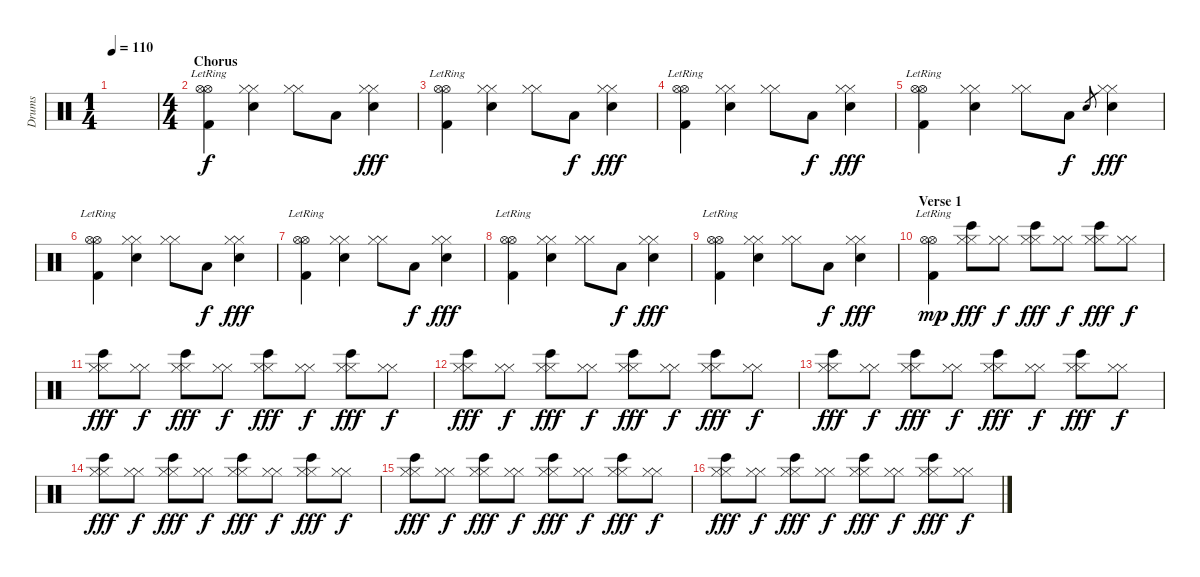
\track ("Drums" "Drums") {instrument percussion}
\staff {score}
\articulation defaults
\ts (1 4)
\tempo 110
\clef neutral
\ks c
|
\ts (4 4)
\section ("" "Chorus")
("Hi-Hat (open)"{lr} "Hi-Hat (open)"{lr} "Kick (hit) 2").4 ("Hi-Hat (closed)" "Hi-Hat (closed)" "Electric Snare (hit)").4 ("Hi-Hat (closed)" "Hi-Hat (closed)").8 "Low Tom (hit)".8{dy f} ("Hi-Hat (closed)" "Hi-Hat (closed)" "Electric Snare (hit)").4{dy fff} |
("Hi-Hat (open)"{lr} "Hi-Hat (open)"{lr} "Kick (hit) 2").4 ("Hi-Hat (closed)" "Hi-Hat (closed)" "Electric Snare (hit)").4 ("Hi-Hat (closed)" "Hi-Hat (closed)").8 "Low Tom (hit)".8{dy f} ("Hi-Hat (closed)" "Hi-Hat (closed)" "Electric Snare (hit)").4{dy fff} |
("Hi-Hat (open)"{lr} "Hi-Hat (open)"{lr} "Kick (hit) 2").4 ("Hi-Hat (closed)" "Hi-Hat (closed)" "Electric Snare (hit)").4 ("Hi-Hat (closed)" "Hi-Hat (closed)").8 "Low Tom (hit)".8{dy f} ("Hi-Hat (closed)" "Hi-Hat (closed)" "Electric Snare (hit)").4{dy fff} |
("Hi-Hat (open)"{lr} "Hi-Hat (open)"{lr} "Kick (hit) 2").4 ("Hi-Hat (closed)" "Hi-Hat (closed)" "Electric Snare (hit)").4 ("Hi-Hat (closed)" "Hi-Hat (closed)").8 "Low Tom (hit)".8{dy f} "Electric Snare (hit)".8{gr} ("Hi-Hat (closed)" "Hi-Hat (closed)" "Electric Snare (hit)").4{dy fff} |
("Hi-Hat (open)"{lr} "Hi-Hat (open)"{lr} "Kick (hit) 2").4 ("Hi-Hat (closed)" "Hi-Hat (closed)" "Electric Snare (hit)").4 ("Hi-Hat (closed)" "Hi-Hat (closed)").8 "Low Tom (hit)".8{dy f} ("Hi-Hat (closed)" "Hi-Hat (closed)" "Electric Snare (hit)").4{dy fff} |
("Hi-Hat (open)"{lr} "Hi-Hat (open)"{lr} "Kick (hit) 2").4 ("Hi-Hat (closed)" "Hi-Hat (closed)" "Electric Snare (hit)").4 ("Hi-Hat (closed)" "Hi-Hat (closed)").8 "Low Tom (hit)".8{dy f} ("Hi-Hat (closed)" "Hi-Hat (closed)" "Electric Snare (hit)").4{dy fff} |
("Hi-Hat (open)"{lr} "Hi-Hat (open)"{lr} "Kick (hit) 2").4 ("Hi-Hat (closed)" "Hi-Hat (closed)" "Electric Snare (hit)").4 ("Hi-Hat (closed)" "Hi-Hat (closed)").8 "Low Tom (hit)".8{dy f} ("Hi-Hat (closed)" "Hi-Hat (closed)" "Electric Snare (hit)").4{dy fff} |
("Hi-Hat (open)"{lr} "Hi-Hat (open)"{lr} "Kick (hit) 2").4 ("Hi-Hat (closed)" "Hi-Hat (closed)" "Electric Snare (hit)").4 ("Hi-Hat (closed)" "Hi-Hat (closed)").8 "Low Tom (hit)".8{dy f} ("Hi-Hat (closed)" "Hi-Hat (closed)" "Electric Snare (hit)").4{dy fff} |
\section ("" "Verse 1")
("Hi-Hat (open)"{lr} "Hi-Hat (open)"{lr} "Kick (hit) 2").4{dy mp} ("Hi-Hat (closed)" "Hi-Hat (closed)" "Bongo High (hit)").8{dy fff} ("Hi-Hat (closed)" "Hi-Hat (closed)").8{dy f} ("Hi-Hat (closed)" "Hi-Hat (closed)" "Bongo High (hit)").8{dy fff} ("Hi-Hat (closed)" "Hi-Hat (closed)").8{dy f} ("Hi-Hat (closed)" "Hi-Hat (closed)" "Bongo High (hit)").8{dy fff} ("Hi-Hat (closed)" "Hi-Hat (closed)").8{dy f} |
("Hi-Hat (closed)" "Hi-Hat (closed)" "Bongo High (hit)").8{dy fff} ("Hi-Hat (closed)" "Hi-Hat (closed)").8{dy f} ("Hi-Hat (closed)" "Hi-Hat (closed)" "Bongo High (hit)").8{dy fff} ("Hi-Hat (closed)" "Hi-Hat (closed)").8{dy f} ("Hi-Hat (closed)" "Hi-Hat (closed)" "Bongo High (hit)").8{dy fff} ("Hi-Hat (closed)" "Hi-Hat (closed)").8{dy f} ("Hi-Hat (closed)" "Hi-Hat (closed)" "Bongo High (hit)").8{dy fff} ("Hi-Hat (closed)" "Hi-Hat (closed)").8{dy f} |
("Hi-Hat (closed)" "Hi-Hat (closed)" "Bongo High (hit)").8{dy fff} ("Hi-Hat (closed)" "Hi-Hat (closed)").8{dy f} ("Hi-Hat (closed)" "Hi-Hat (closed)" "Bongo High (hit)").8{dy fff} ("Hi-Hat (closed)" "Hi-Hat (closed)").8{dy f} ("Hi-Hat (closed)" "Hi-Hat (closed)" "Bongo High (hit)").8{dy fff} ("Hi-Hat (closed)" "Hi-Hat (closed)").8{dy f} ("Hi-Hat (closed)" "Hi-Hat (closed)" "Bongo High (hit)").8{dy fff} ("Hi-Hat (closed)" "Hi-Hat (closed)").8{dy f} |
("Hi-Hat (closed)" "Hi-Hat (closed)" "Bongo High (hit)").8{dy fff} ("Hi-Hat (closed)" "Hi-Hat (closed)").8{dy f} ("Hi-Hat (closed)" "Hi-Hat (closed)" "Bongo High (hit)").8{dy fff} ("Hi-Hat (closed)" "Hi-Hat (closed)").8{dy f} ("Hi-Hat (closed)" "Hi-Hat (closed)" "Bongo High (hit)").8{dy fff} ("Hi-Hat (closed)" "Hi-Hat (closed)").8{dy f} ("Hi-Hat (closed)" "Hi-Hat (closed)" "Bongo High (hit)").8{dy fff} ("Hi-Hat (closed)" "Hi-Hat (closed)").8{dy f} |
("Hi-Hat (closed)" "Hi-Hat (closed)" "Bongo High (hit)").8{dy fff} ("Hi-Hat (closed)" "Hi-Hat (closed)").8{dy f} ("Hi-Hat (closed)" "Hi-Hat (closed)" "Bongo High (hit)").8{dy fff} ("Hi-Hat (closed)" "Hi-Hat (closed)").8{dy f} ("Hi-Hat (closed)" "Hi-Hat (closed)" "Bongo High (hit)").8{dy fff} ("Hi-Hat (closed)" "Hi-Hat (closed)").8{dy f} ("Hi-Hat (closed)" "Hi-Hat (closed)" "Bongo High (hit)").8{dy fff} ("Hi-Hat (closed)" "Hi-Hat (closed)").8{dy f} |
("Hi-Hat (closed)" "Hi-Hat (closed)" "Bongo High (hit)").8{dy fff} ("Hi-Hat (closed)" "Hi-Hat (closed)").8{dy f} ("Hi-Hat (closed)" "Hi-Hat (closed)" "Bongo High (hit)").8{dy fff} ("Hi-Hat (closed)" "Hi-Hat (closed)").8{dy f} ("Hi-Hat (closed)" "Hi-Hat (closed)" "Bongo High (hit)").8{dy fff} ("Hi-Hat (closed)" "Hi-Hat (closed)").8{dy f} ("Hi-Hat (closed)" "Hi-Hat (closed)" "Bongo High (hit)").8{dy fff} ("Hi-Hat (closed)" "Hi-Hat (closed)").8{dy f} |
("Hi-Hat (closed)" "Hi-Hat (closed)" "Bongo High (hit)").8{dy fff} ("Hi-Hat (closed)" "Hi-Hat (closed)").8{dy f} ("Hi-Hat (closed)" "Hi-Hat (closed)" "Bongo High (hit)").8{dy fff} ("Hi-Hat (closed)" "Hi-Hat (closed)").8{dy f} ("Hi-Hat (closed)" "Hi-Hat (closed)" "Bongo High (hit)").8{dy fff} ("Hi-Hat (closed)" "Hi-Hat (closed)").8{dy f} ("Hi-Hat (closed)" "Hi-Hat (closed)" "Bongo High (hit)").8{dy fff} ("Hi-Hat (closed)" "Hi-Hat (closed)").8{dy f}
